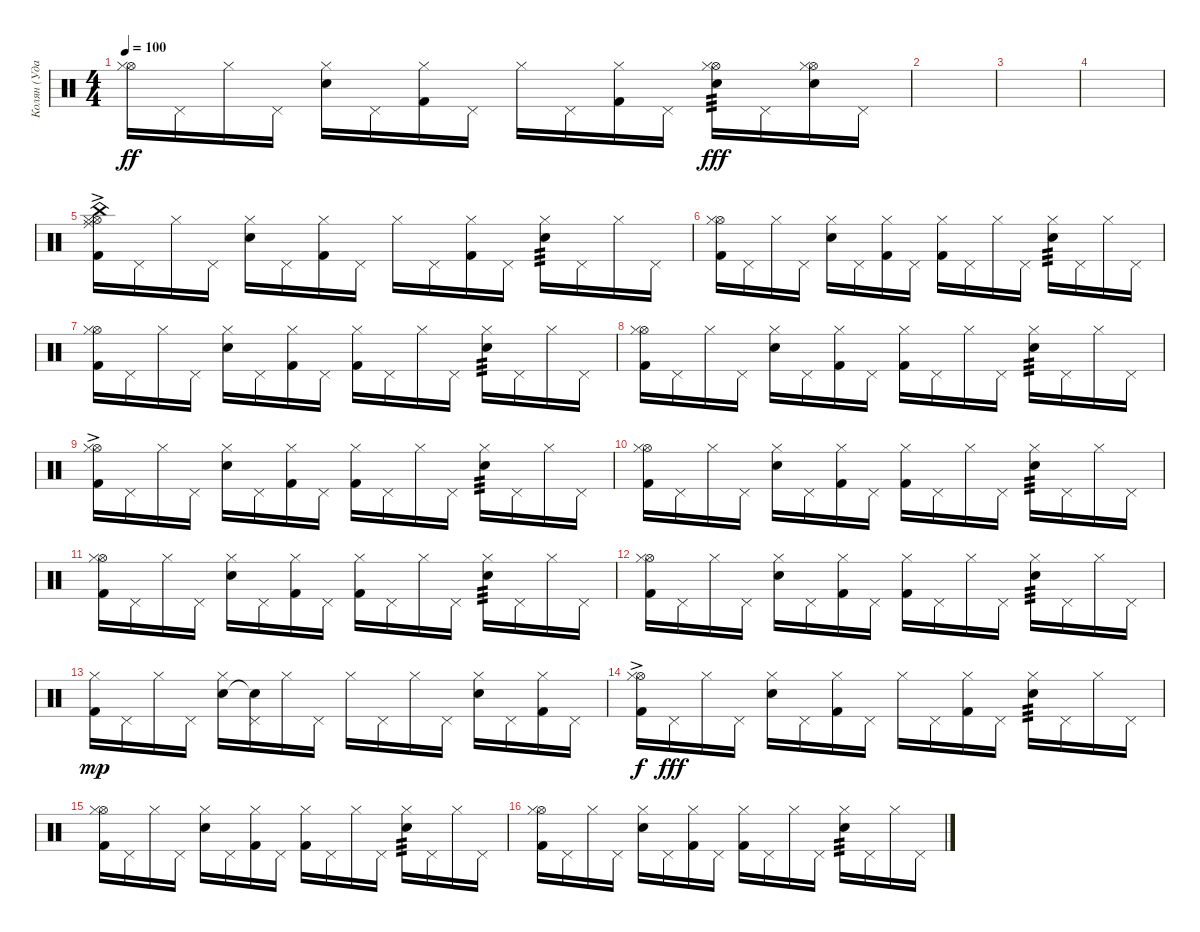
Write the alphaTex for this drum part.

\track ("Колян (Ударные)" "Колян (Уда") {instrument percussion}
\staff {score}
\articulation defaults
\ts (4 4)
\tempo 100
\clef neutral
\ks c
("Hi-Hat (open)" "Hi-Hat (closed)").16{dy ff} "Pedal Hi-Hat (hit)".16 "Hi-Hat (closed)".16 "Pedal Hi-Hat (hit)".16 ("Snare (hit) 2" "Hi-Hat (closed)").16 "Pedal Hi-Hat (hit)".16 ("Kick (hit) 2" "Hi-Hat (closed)").16 "Pedal Hi-Hat (hit)".16 "Hi-Hat (closed)".16 "Pedal Hi-Hat (hit)".16 ("Kick (hit) 2" "Hi-Hat (closed)").16 "Pedal Hi-Hat (hit)".16 ("Snare (hit) 2" "Hi-Hat (open)" "Hi-Hat (closed)").16{tp 3 dy fff} "Pedal Hi-Hat (hit)".16 ("Snare (hit) 2" "Hi-Hat (open)" "Hi-Hat (closed)").16 "Pedal Hi-Hat (hit)".16 |
|
|
|
("Kick (hit) 2" "Hi-Hat (open)"{ac} "China (hit)" "Ride (middle)" "Hi-Hat (closed)").16{volume 13} "Pedal Hi-Hat (hit)".16 "Hi-Hat (closed)".16 "Pedal Hi-Hat (hit)".16 ("Snare (hit) 2" "Hi-Hat (closed)").16 "Pedal Hi-Hat (hit)".16 ("Kick (hit) 2" "Hi-Hat (closed)").16 "Pedal Hi-Hat (hit)".16 "Hi-Hat (closed)".16 "Pedal Hi-Hat (hit)".16 ("Kick (hit) 2" "Hi-Hat (closed)").16 "Pedal Hi-Hat (hit)".16 ("Snare (hit) 2" "Hi-Hat (closed)").16{tp 3} "Pedal Hi-Hat (hit)".16 "Hi-Hat (closed)".16 "Pedal Hi-Hat (hit)".16 |
("Kick (hit) 2" "Hi-Hat (open)" "Hi-Hat (closed)").16 "Pedal Hi-Hat (hit)".16 "Hi-Hat (closed)".16 "Pedal Hi-Hat (hit)".16 ("Snare (hit) 2" "Hi-Hat (closed)").16 "Pedal Hi-Hat (hit)".16 ("Kick (hit) 2" "Hi-Hat (closed)").16 "Pedal Hi-Hat (hit)".16 ("Kick (hit) 2" "Hi-Hat (closed)").16 "Pedal Hi-Hat (hit)".16 "Hi-Hat (closed)".16 "Pedal Hi-Hat (hit)".16 ("Snare (hit) 2" "Hi-Hat (closed)").16{tp 3} "Pedal Hi-Hat (hit)".16 "Hi-Hat (closed)".16 "Pedal Hi-Hat (hit)".16 |
("Kick (hit) 2" "Hi-Hat (open)" "Hi-Hat (closed)").16 "Pedal Hi-Hat (hit)".16 "Hi-Hat (closed)".16 "Pedal Hi-Hat (hit)".16 ("Snare (hit) 2" "Hi-Hat (closed)").16 "Pedal Hi-Hat (hit)".16 ("Kick (hit) 2" "Hi-Hat (closed)").16 "Pedal Hi-Hat (hit)".16 ("Kick (hit) 2" "Hi-Hat (closed)").16 "Pedal Hi-Hat (hit)".16 "Hi-Hat (closed)".16 "Pedal Hi-Hat (hit)".16 ("Snare (hit) 2" "Hi-Hat (closed)").16{tp 3} "Pedal Hi-Hat (hit)".16 "Hi-Hat (closed)".16 "Pedal Hi-Hat (hit)".16 |
("Kick (hit) 2" "Hi-Hat (open)" "Hi-Hat (closed)").16 "Pedal Hi-Hat (hit)".16 "Hi-Hat (closed)".16 "Pedal Hi-Hat (hit)".16 ("Snare (hit) 2" "Hi-Hat (closed)").16 "Pedal Hi-Hat (hit)".16 ("Kick (hit) 2" "Hi-Hat (closed)").16 "Pedal Hi-Hat (hit)".16 ("Kick (hit) 2" "Hi-Hat (closed)").16 "Pedal Hi-Hat (hit)".16 "Hi-Hat (closed)".16 "Pedal Hi-Hat (hit)".16 ("Snare (hit) 2" "Hi-Hat (closed)").16{tp 3} "Pedal Hi-Hat (hit)".16 "Hi-Hat (closed)".16 "Pedal Hi-Hat (hit)".16 |
("Kick (hit) 2" "Hi-Hat (open)"{ac} "Hi-Hat (closed)").16{volume 13} "Pedal Hi-Hat (hit)".16 "Hi-Hat (closed)".16 "Pedal Hi-Hat (hit)".16 ("Snare (hit) 2" "Hi-Hat (closed)").16 "Pedal Hi-Hat (hit)".16 ("Kick (hit) 2" "Hi-Hat (closed)").16 "Pedal Hi-Hat (hit)".16 ("Kick (hit) 2" "Hi-Hat (closed)").16 "Pedal Hi-Hat (hit)".16 "Hi-Hat (closed)".16 "Pedal Hi-Hat (hit)".16 ("Snare (hit) 2" "Hi-Hat (closed)").16{tp 3} "Pedal Hi-Hat (hit)".16 "Hi-Hat (closed)".16 "Pedal Hi-Hat (hit)".16 |
("Kick (hit) 2" "Hi-Hat (open)" "Hi-Hat (closed)").16 "Pedal Hi-Hat (hit)".16 "Hi-Hat (closed)".16 "Pedal Hi-Hat (hit)".16 ("Snare (hit) 2" "Hi-Hat (closed)").16 "Pedal Hi-Hat (hit)".16 ("Kick (hit) 2" "Hi-Hat (closed)").16 "Pedal Hi-Hat (hit)".16 ("Kick (hit) 2" "Hi-Hat (closed)").16 "Pedal Hi-Hat (hit)".16 "Hi-Hat (closed)".16 "Pedal Hi-Hat (hit)".16 ("Snare (hit) 2" "Hi-Hat (closed)").16{tp 3} "Pedal Hi-Hat (hit)".16 "Hi-Hat (closed)".16 "Pedal Hi-Hat (hit)".16 |
("Kick (hit) 2" "Hi-Hat (open)" "Hi-Hat (closed)").16 "Pedal Hi-Hat (hit)".16 "Hi-Hat (closed)".16 "Pedal Hi-Hat (hit)".16 ("Snare (hit) 2" "Hi-Hat (closed)").16 "Pedal Hi-Hat (hit)".16 ("Kick (hit) 2" "Hi-Hat (closed)").16 "Pedal Hi-Hat (hit)".16 ("Kick (hit) 2" "Hi-Hat (closed)").16 "Pedal Hi-Hat (hit)".16 "Hi-Hat (closed)".16 "Pedal Hi-Hat (hit)".16 ("Snare (hit) 2" "Hi-Hat (closed)").16{tp 3} "Pedal Hi-Hat (hit)".16 "Hi-Hat (closed)".16 "Pedal Hi-Hat (hit)".16 |
("Kick (hit) 2" "Hi-Hat (open)" "Hi-Hat (closed)").16 "Pedal Hi-Hat (hit)".16 "Hi-Hat (closed)".16 "Pedal Hi-Hat (hit)".16 ("Snare (hit) 2" "Hi-Hat (closed)").16 "Pedal Hi-Hat (hit)".16 ("Kick (hit) 2" "Hi-Hat (closed)").16 "Pedal Hi-Hat (hit)".16 ("Kick (hit) 2" "Hi-Hat (closed)").16 "Pedal Hi-Hat (hit)".16 "Hi-Hat (closed)".16 "Pedal Hi-Hat (hit)".16 ("Snare (hit) 2" "Hi-Hat (closed)").16{tp 3} "Pedal Hi-Hat (hit)".16 "Hi-Hat (closed)".16 "Pedal Hi-Hat (hit)".16 |
("Kick (hit) 2" "Hi-Hat (closed)").16{dy mp} "Pedal Hi-Hat (hit)".16 "Hi-Hat (closed)".16 "Pedal Hi-Hat (hit)".16 ("Electric Snare (hit)" "Hi-Hat (closed)").16 ("Snare (hit)"{t} "Pedal Hi-Hat (hit)").16 "Hi-Hat (closed)".16 "Pedal Hi-Hat (hit)".16 "Hi-Hat (closed)".16 "Pedal Hi-Hat (hit)".16 "Hi-Hat (closed)".16 "Pedal Hi-Hat (hit)".16 ("Electric Snare (hit)" "Hi-Hat (closed)").16 "Pedal Hi-Hat (hit)".16 ("Kick (hit) 2" "Hi-Hat (closed)").16 "Pedal Hi-Hat (hit)".16 |
("Kick (hit) 2" "Hi-Hat (open)"{ac} "Hi-Hat (closed)").16{dy f volume 13} "Pedal Hi-Hat (hit)".16{dy fff} "Hi-Hat (closed)".16 "Pedal Hi-Hat (hit)".16 ("Snare (hit) 2" "Hi-Hat (closed)").16 "Pedal Hi-Hat (hit)".16 ("Kick (hit) 2" "Hi-Hat (closed)").16 "Pedal Hi-Hat (hit)".16 "Hi-Hat (closed)".16 "Pedal Hi-Hat (hit)".16 ("Kick (hit) 2" "Hi-Hat (closed)").16 "Pedal Hi-Hat (hit)".16 ("Snare (hit) 2" "Hi-Hat (closed)").16{tp 3} "Pedal Hi-Hat (hit)".16 "Hi-Hat (closed)".16 "Pedal Hi-Hat (hit)".16 |
("Kick (hit) 2" "Hi-Hat (open)" "Hi-Hat (closed)").16 "Pedal Hi-Hat (hit)".16 "Hi-Hat (closed)".16 "Pedal Hi-Hat (hit)".16 ("Snare (hit) 2" "Hi-Hat (closed)").16 "Pedal Hi-Hat (hit)".16 ("Kick (hit) 2" "Hi-Hat (closed)").16 "Pedal Hi-Hat (hit)".16 ("Kick (hit) 2" "Hi-Hat (closed)").16 "Pedal Hi-Hat (hit)".16 "Hi-Hat (closed)".16 "Pedal Hi-Hat (hit)".16 ("Snare (hit) 2" "Hi-Hat (closed)").16{tp 3} "Pedal Hi-Hat (hit)".16 "Hi-Hat (closed)".16 "Pedal Hi-Hat (hit)".16 |
("Kick (hit) 2" "Hi-Hat (open)" "Hi-Hat (closed)").16 "Pedal Hi-Hat (hit)".16 "Hi-Hat (closed)".16 "Pedal Hi-Hat (hit)".16 ("Snare (hit) 2" "Hi-Hat (closed)").16 "Pedal Hi-Hat (hit)".16 ("Kick (hit) 2" "Hi-Hat (closed)").16 "Pedal Hi-Hat (hit)".16 ("Kick (hit) 2" "Hi-Hat (closed)").16 "Pedal Hi-Hat (hit)".16 "Hi-Hat (closed)".16 "Pedal Hi-Hat (hit)".16 ("Snare (hit) 2" "Hi-Hat (closed)").16{tp 3} "Pedal Hi-Hat (hit)".16 "Hi-Hat (closed)".16 "Pedal Hi-Hat (hit)".16
